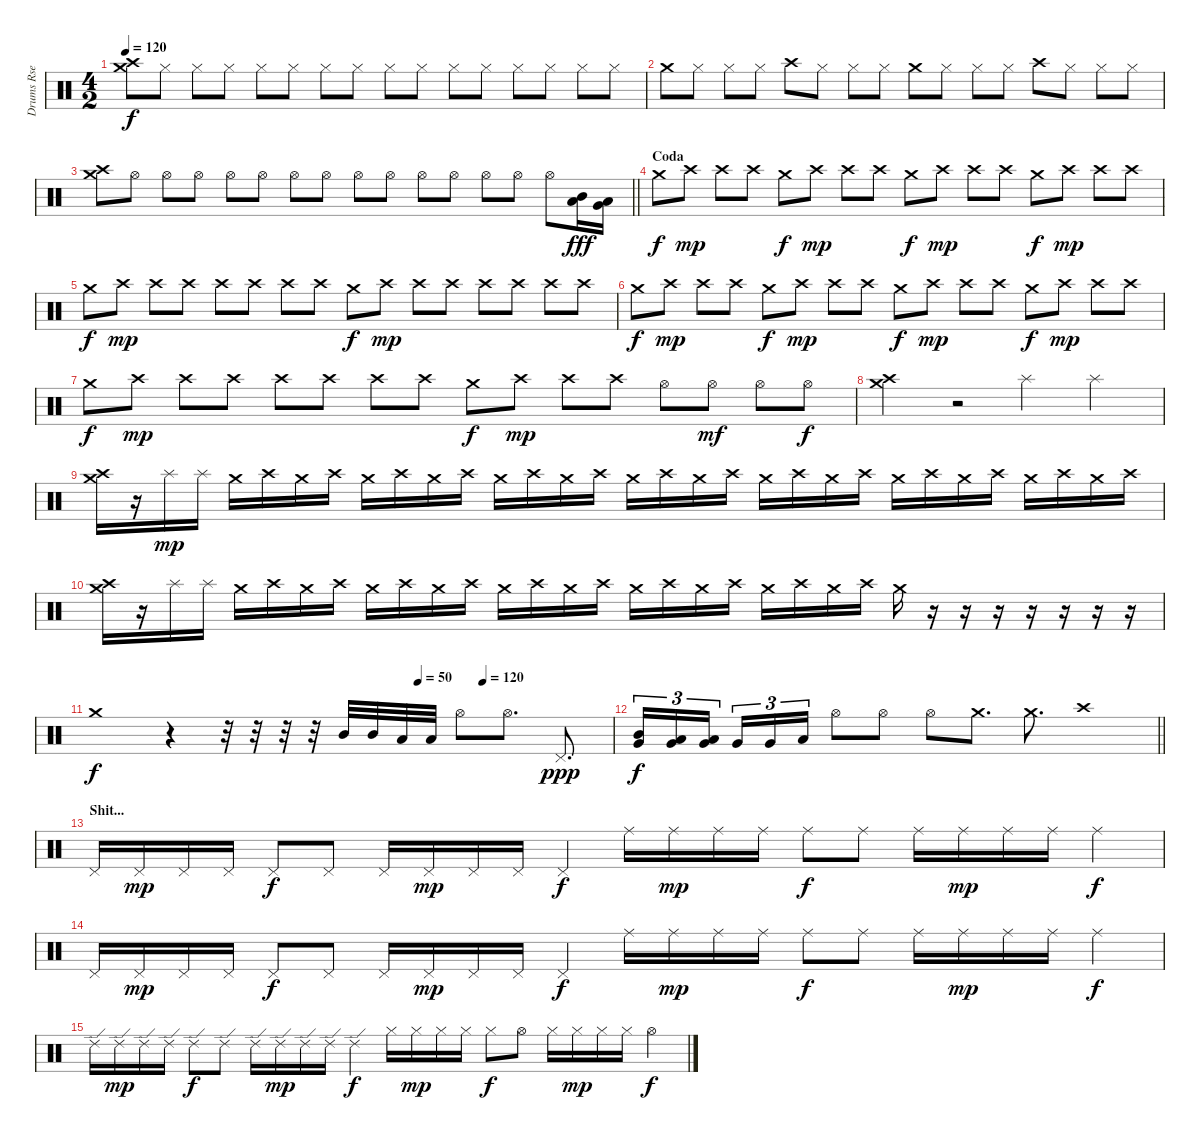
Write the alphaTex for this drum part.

\track ("Drums Rse" "Drums Rse") {instrument percussion}
\staff {score}
\articulation defaults
\ts (4 2)
\tempo 120
\clef neutral
\ks c
("Crash medium (hit)" "Crash high (hit)").8{dy f} "Hi-Hat (closed)".8 "Hi-Hat (closed)".8 "Hi-Hat (closed)".8 "Hi-Hat (closed)".8 "Hi-Hat (closed)".8 "Hi-Hat (closed)".8 "Hi-Hat (closed)".8 "Hi-Hat (closed)".8 "Hi-Hat (closed)".8 "Hi-Hat (closed)".8 "Hi-Hat (closed)".8 "Hi-Hat (closed)".8 "Hi-Hat (closed)".8 "Hi-Hat (closed)".8 "Hi-Hat (closed)".8 |
"Crash medium (hit)".8 "Hi-Hat (closed)".8 "Hi-Hat (closed)".8 "Hi-Hat (closed)".8 "Crash high (hit)".8 "Hi-Hat (closed)".8 "Hi-Hat (closed)".8 "Hi-Hat (closed)".8 "Crash medium (hit)".8 "Hi-Hat (closed)".8 "Hi-Hat (closed)".8 "Hi-Hat (closed)".8 "Crash high (hit)".8 "Hi-Hat (closed)".8 "Hi-Hat (closed)".8 "Hi-Hat (closed)".8 |
\barLineRight lightlight
("Crash medium (hit)" "Crash high (hit)").8 "Hi-Hat (open)".8 "Hi-Hat (open)".8 "Hi-Hat (open)".8 "Hi-Hat (open)".8 "Hi-Hat (open)".8 "Hi-Hat (open)".8 "Hi-Hat (open)".8 "Hi-Hat (open)".8 "Hi-Hat (open)".8 "Hi-Hat (open)".8 "Hi-Hat (open)".8 "Hi-Hat (open)".8 "Hi-Hat (open)".8 "Hi-Hat (open)".8 ("Mid Tom (hit)" "Low Tom (hit)").16{dy fff} ("Low Tom (hit)" "Very Low Tom (hit)").16 |
\section ("" "Coda")
"Crash medium (hit)".8{dy f} "Crash high (hit)".8{dy mp} "Crash high (hit)".8 "Crash high (hit)".8 "Crash medium (hit)".8{dy f} "Crash high (hit)".8{dy mp} "Crash high (hit)".8 "Crash high (hit)".8 "Crash medium (hit)".8{dy f} "Crash high (hit)".8{dy mp} "Crash high (hit)".8 "Crash high (hit)".8 "Crash medium (hit)".8{dy f} "Crash high (hit)".8{dy mp} "Crash high (hit)".8 "Crash high (hit)".8 |
"Crash medium (hit)".8{dy f} "Crash high (hit)".8{dy mp} "Crash high (hit)".8 "Crash high (hit)".8 "Crash high (hit)".8 "Crash high (hit)".8 "Crash high (hit)".8 "Crash high (hit)".8 "Crash medium (hit)".8{dy f} "Crash high (hit)".8{dy mp} "Crash high (hit)".8 "Crash high (hit)".8 "Crash high (hit)".8 "Crash high (hit)".8 "Crash high (hit)".8 "Crash high (hit)".8 |
"Crash medium (hit)".8{dy f} "Crash high (hit)".8{dy mp} "Crash high (hit)".8 "Crash high (hit)".8 "Crash medium (hit)".8{dy f} "Crash high (hit)".8{dy mp} "Crash high (hit)".8 "Crash high (hit)".8 "Crash medium (hit)".8{dy f} "Crash high (hit)".8{dy mp} "Crash high (hit)".8 "Crash high (hit)".8 "Crash medium (hit)".8{dy f} "Crash high (hit)".8{dy mp} "Crash high (hit)".8 "Crash high (hit)".8 |
"Crash medium (hit)".8{dy f} "Crash high (hit)".8{dy mp} "Crash high (hit)".8 "Crash high (hit)".8 "Crash high (hit)".8 "Crash high (hit)".8 "Crash high (hit)".8 "Crash high (hit)".8 "Crash medium (hit)".8{dy f} "Crash high (hit)".8{dy mp} "Crash high (hit)".8 "Crash high (hit)".8 "Hi-Hat (open)".8 "Hi-Hat (open)".8{dy mf} "Hi-Hat (open)".8 "Hi-Hat (open)".8{dy f} |
("Crash medium (hit)" "Crash high (hit)").2 r.2 "Splash (hit)".2 "Splash (hit)".2 |
("Crash medium (hit)" "Crash high (hit)").16 r.16 "Splash (hit)".16{dy mp} "Splash (hit)".16 "Crash medium (hit)".16 "Crash high (hit)".16 "Crash medium (hit)".16 "Crash high (hit)".16 "Crash medium (hit)".16 "Crash high (hit)".16 "Crash medium (hit)".16 "Crash high (hit)".16 "Crash medium (hit)".16 "Crash high (hit)".16 "Crash medium (hit)".16 "Crash high (hit)".16 "Crash medium (hit)".16 "Crash high (hit)".16 "Crash medium (hit)".16 "Crash high (hit)".16 "Crash medium (hit)".16 "Crash high (hit)".16 "Crash medium (hit)".16 "Crash high (hit)".16 "Crash medium (hit)".16 "Crash high (hit)".16 "Crash medium (hit)".16 "Crash high (hit)".16 "Crash medium (hit)".16 "Crash high (hit)".16 "Crash medium (hit)".16 "Crash high (hit)".16 |
("Crash medium (hit)" "Crash high (hit)").16 r.16 "Splash (hit)".16 "Splash (hit)".16 "Crash medium (hit)".16 "Crash high (hit)".16 "Crash medium (hit)".16 "Crash high (hit)".16 "Crash medium (hit)".16 "Crash high (hit)".16 "Crash medium (hit)".16 "Crash high (hit)".16 "Crash medium (hit)".16 "Crash high (hit)".16 "Crash medium (hit)".16 "Crash high (hit)".16 "Crash medium (hit)".16 "Crash high (hit)".16 "Crash medium (hit)".16 "Crash high (hit)".16 "Crash medium (hit)".16 "Crash high (hit)".16 "Crash medium (hit)".16 "Crash high (hit)".16 "Crash medium (hit)".16 r.16 r.16 r.16 r.16 r.16 r.16 r.16 |
\tempo (50 0.625)
\tempo (120 0.75)
"Crash medium (hit)".1{dy f} r.4 r.32 r.32 r.32 r.32 "Mid Tom (hit)".32 "Mid Tom (hit)".32 "Low Tom (hit)".32 "Low Tom (hit)".32 "Hi-Hat (open)".8 "Hi-Hat (open)".8{d} "Pedal Hi-Hat (hit)".8{d dy ppp} |
\barLineRight lightlight
("Mid Tom (hit)" "Very Low Tom (hit)").16{tu (3 2) dy f} ("Low Tom (hit)" "Very Low Tom (hit)").16{tu (3 2)} ("Very Low Tom (hit)" "Low Floor Tom (hit)").16{tu (3 2) beam splitsecondary} "Very Low Tom (hit)".16{tu (3 2)} "Very Low Tom (hit)".16{tu (3 2)} "Low Floor Tom (hit)".16{tu (3 2)} "Hi-Hat (open)".8 "Hi-Hat (open)".8 "Hi-Hat (open)".8 "Crash medium (hit)".8{d} "Crash medium (hit)".8{d} "Crash high (hit)".1 |
\section ("" "Shit...")
"Pedal Hi-Hat (hit)".16 "Pedal Hi-Hat (hit)".16{dy mp} "Pedal Hi-Hat (hit)".16 "Pedal Hi-Hat (hit)".16 "Pedal Hi-Hat (hit)".8{dy f} "Pedal Hi-Hat (hit)".8 "Pedal Hi-Hat (hit)".16 "Pedal Hi-Hat (hit)".16{dy mp} "Pedal Hi-Hat (hit)".16 "Pedal Hi-Hat (hit)".16 "Pedal Hi-Hat (hit)".4{dy f} "Ride (middle)".16 "Ride (middle)".16{dy mp} "Ride (middle)".16 "Ride (middle)".16 "Ride (middle)".8{dy f} "Ride (middle)".8 "Ride (middle)".16 "Ride (middle)".16{dy mp} "Ride (middle)".16 "Ride (middle)".16 "Ride (middle)".4{dy f} |
"Pedal Hi-Hat (hit)".16 "Pedal Hi-Hat (hit)".16{dy mp} "Pedal Hi-Hat (hit)".16 "Pedal Hi-Hat (hit)".16 "Pedal Hi-Hat (hit)".8{dy f} "Pedal Hi-Hat (hit)".8 "Pedal Hi-Hat (hit)".16 "Pedal Hi-Hat (hit)".16{dy mp} "Pedal Hi-Hat (hit)".16 "Pedal Hi-Hat (hit)".16 "Pedal Hi-Hat (hit)".4{dy f} "Ride (middle)".16 "Ride (middle)".16{dy mp} "Ride (middle)".16 "Ride (middle)".16 "Ride (middle)".8{dy f} "Ride (middle)".8 "Ride (middle)".16 "Ride (middle)".16{dy mp} "Ride (middle)".16 "Ride (middle)".16 "Ride (middle)".4{dy f} |
"Ride (edge) 2".16{volume 0} "Ride (edge) 2".16{dy mp} "Ride (edge) 2".16 "Ride (edge) 2".16 "Ride (edge) 2".8{dy f} "Ride (edge) 2".8 "Ride (edge) 2".16 "Ride (edge) 2".16{dy mp} "Ride (edge) 2".16 "Ride (edge) 2".16 "Ride (edge) 2".4{dy f} "Hi-Hat (closed)".16 "Hi-Hat (closed)".16{dy mp} "Hi-Hat (closed)".16 "Hi-Hat (closed)".16 "Hi-Hat (closed)".8{dy f} "Hi-Hat (open)".8 "Hi-Hat (closed)".16 "Hi-Hat (closed)".16{dy mp} "Hi-Hat (closed)".16 "Hi-Hat (closed)".16 "Hi-Hat (open)".4{dy f}
